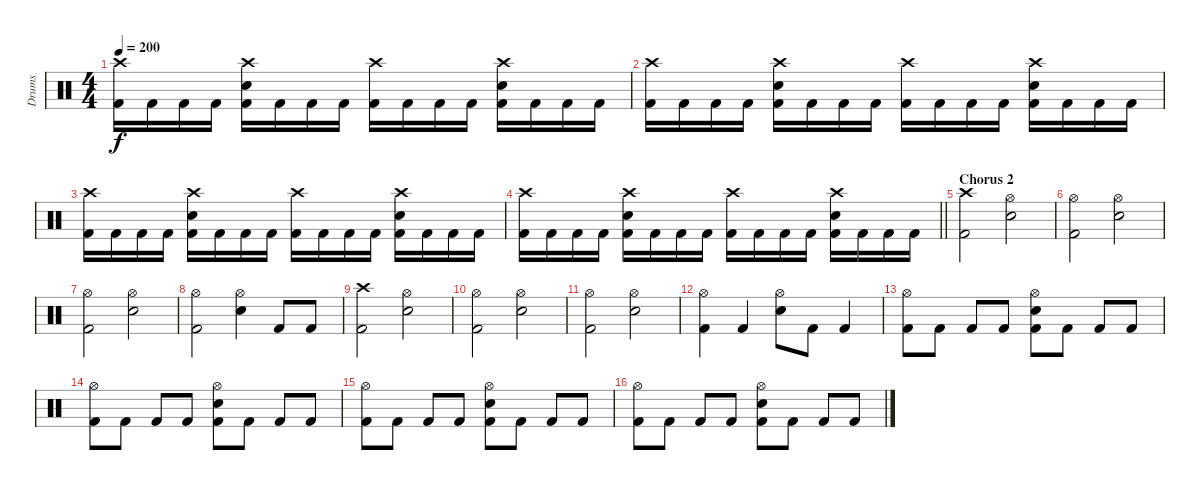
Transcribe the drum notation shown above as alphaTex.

\track ("Drums" "Drums") {instrument percussion}
\staff {score}
\articulation defaults
\ts (4 4)
\tempo 200
\clef neutral
\ks c
("Crash high (hit)" "Kick (hit) 2").16{dy f} "Kick (hit) 2".16 "Kick (hit) 2".16 "Kick (hit) 2".16 ("Crash high (hit)" "Electric Snare (hit)" "Kick (hit) 2").16 "Kick (hit) 2".16 "Kick (hit) 2".16 "Kick (hit) 2".16 ("Crash high (hit)" "Kick (hit) 2").16 "Kick (hit) 2".16 "Kick (hit) 2".16 "Kick (hit) 2".16 ("Crash high (hit)" "Electric Snare (hit)" "Kick (hit) 2").16 "Kick (hit) 2".16 "Kick (hit) 2".16 "Kick (hit) 2".16 |
("Crash high (hit)" "Kick (hit) 2").16 "Kick (hit) 2".16 "Kick (hit) 2".16 "Kick (hit) 2".16 ("Crash high (hit)" "Electric Snare (hit)" "Kick (hit) 2").16 "Kick (hit) 2".16 "Kick (hit) 2".16 "Kick (hit) 2".16 ("Crash high (hit)" "Kick (hit) 2").16 "Kick (hit) 2".16 "Kick (hit) 2".16 "Kick (hit) 2".16 ("Crash high (hit)" "Electric Snare (hit)" "Kick (hit) 2").16 "Kick (hit) 2".16 "Kick (hit) 2".16 "Kick (hit) 2".16 |
("Crash high (hit)" "Kick (hit) 2").16 "Kick (hit) 2".16 "Kick (hit) 2".16 "Kick (hit) 2".16 ("Crash high (hit)" "Electric Snare (hit)" "Kick (hit) 2").16 "Kick (hit) 2".16 "Kick (hit) 2".16 "Kick (hit) 2".16 ("Crash high (hit)" "Kick (hit) 2").16 "Kick (hit) 2".16 "Kick (hit) 2".16 "Kick (hit) 2".16 ("Crash high (hit)" "Electric Snare (hit)" "Kick (hit) 2").16 "Kick (hit) 2".16 "Kick (hit) 2".16 "Kick (hit) 2".16 |
\barLineRight lightlight
("Crash high (hit)" "Kick (hit) 2").16 "Kick (hit) 2".16 "Kick (hit) 2".16 "Kick (hit) 2".16 ("Crash high (hit)" "Electric Snare (hit)" "Kick (hit) 2").16 "Kick (hit) 2".16 "Kick (hit) 2".16 "Kick (hit) 2".16 ("Crash high (hit)" "Kick (hit) 2").16 "Kick (hit) 2".16 "Kick (hit) 2".16 "Kick (hit) 2".16 ("Crash high (hit)" "Electric Snare (hit)" "Kick (hit) 2").16 "Kick (hit) 2".16 "Kick (hit) 2".16 "Kick (hit) 2".16 |
\section ("" "Chorus 2")
("Crash high (hit)" "Kick (hit) 2").2 ("Hi-Hat (open)" "Electric Snare (hit)").2 |
("Hi-Hat (open)" "Kick (hit) 2").2 ("Hi-Hat (open)" "Electric Snare (hit)").2 |
("Hi-Hat (open)" "Kick (hit) 2").2 ("Hi-Hat (open)" "Electric Snare (hit)").2 |
("Hi-Hat (open)" "Kick (hit) 2").2 ("Hi-Hat (open)" "Electric Snare (hit)").4 "Kick (hit) 2".8 "Kick (hit) 2".8 |
("Crash high (hit)" "Kick (hit) 2").2 ("Hi-Hat (open)" "Electric Snare (hit)").2 |
("Hi-Hat (open)" "Kick (hit) 2").2 ("Hi-Hat (open)" "Electric Snare (hit)").2 |
("Hi-Hat (open)" "Kick (hit) 2").2 ("Hi-Hat (open)" "Electric Snare (hit)").2 |
("Hi-Hat (open)" "Kick (hit) 2").4 "Kick (hit) 2".4 ("Hi-Hat (open)" "Electric Snare (hit)").8 "Kick (hit) 2".8 "Kick (hit) 2".4 |
("Hi-Hat (open)" "Kick (hit) 2").8 "Kick (hit) 2".8 "Kick (hit) 2".8 "Kick (hit) 2".8 ("Hi-Hat (open)" "Electric Snare (hit)" "Kick (hit) 2").8 "Kick (hit) 2".8 "Kick (hit) 2".8 "Kick (hit) 2".8 |
("Hi-Hat (open)" "Kick (hit) 2").8 "Kick (hit) 2".8 "Kick (hit) 2".8 "Kick (hit) 2".8 ("Hi-Hat (open)" "Electric Snare (hit)" "Kick (hit) 2").8 "Kick (hit) 2".8 "Kick (hit) 2".8 "Kick (hit) 2".8 |
("Hi-Hat (open)" "Kick (hit) 2").8 "Kick (hit) 2".8 "Kick (hit) 2".8 "Kick (hit) 2".8 ("Hi-Hat (open)" "Electric Snare (hit)" "Kick (hit) 2").8 "Kick (hit) 2".8 "Kick (hit) 2".8 "Kick (hit) 2".8 |
("Hi-Hat (open)" "Kick (hit) 2").8 "Kick (hit) 2".8 "Kick (hit) 2".8 "Kick (hit) 2".8 ("Hi-Hat (open)" "Electric Snare (hit)" "Kick (hit) 2").8 "Kick (hit) 2".8 "Kick (hit) 2".8 "Kick (hit) 2".8
